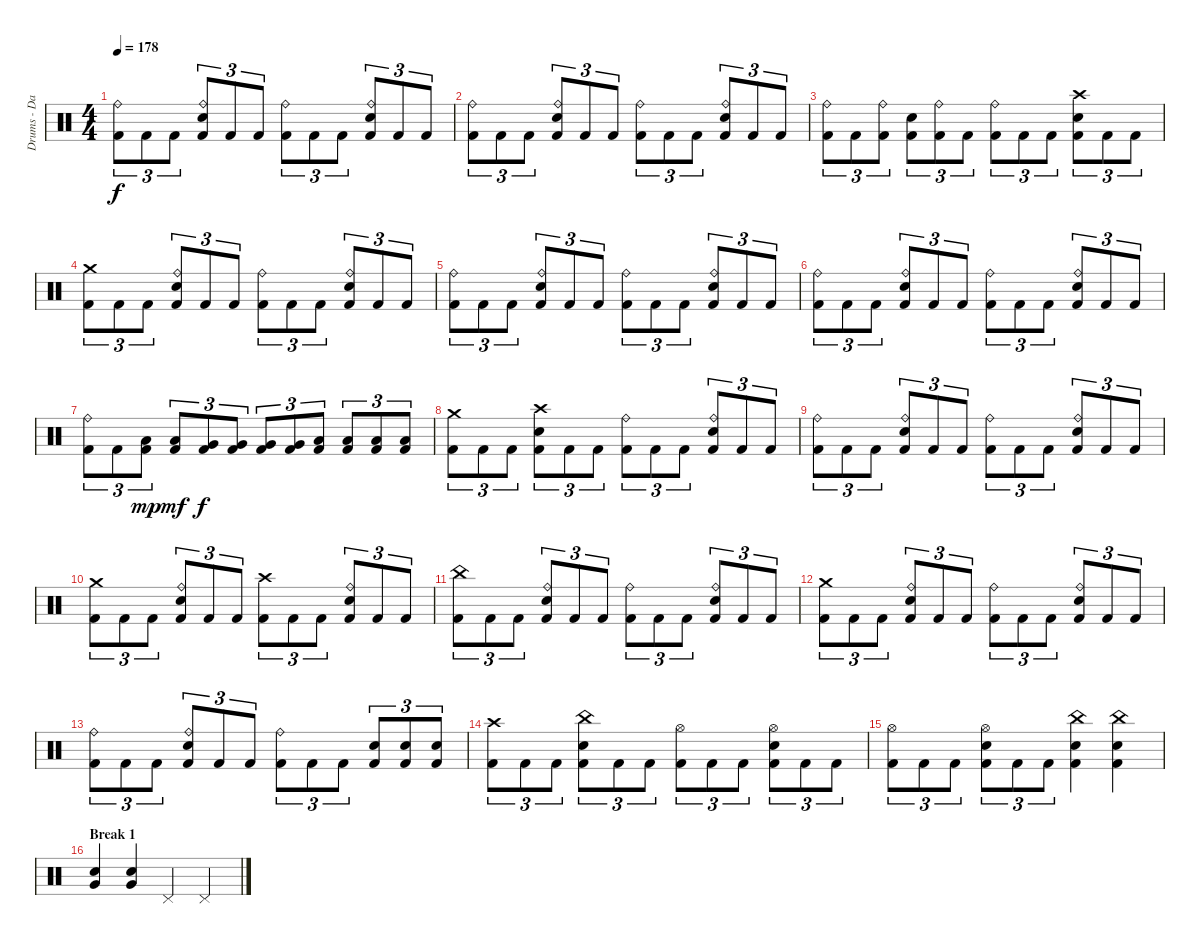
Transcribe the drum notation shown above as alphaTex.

\track ("Drums - Dan Zimmermann" "Drums - Da") {instrument percussion}
\staff {score}
\articulation defaults
\ts (4 4)
\tempo 178
\clef neutral
\ks c
("Kick (hit) 2" "Ride (bell)").8{tu (3 2) dy f} "Kick (hit) 2".8{tu (3 2)} "Kick (hit) 2".8{tu (3 2)} ("Kick (hit) 2" "Electric Snare (hit)" "Ride (bell)").8{tu (3 2)} "Kick (hit) 2".8{tu (3 2)} "Kick (hit) 2".8{tu (3 2)} ("Kick (hit) 2" "Ride (bell)").8{tu (3 2)} "Kick (hit) 2".8{tu (3 2)} "Kick (hit) 2".8{tu (3 2)} ("Kick (hit) 2" "Electric Snare (hit)" "Ride (bell)").8{tu (3 2)} "Kick (hit) 2".8{tu (3 2)} "Kick (hit) 2".8{tu (3 2)} |
("Kick (hit) 2" "Ride (bell)").8{tu (3 2)} "Kick (hit) 2".8{tu (3 2)} "Kick (hit) 2".8{tu (3 2)} ("Kick (hit) 2" "Electric Snare (hit)" "Ride (bell)").8{tu (3 2)} "Kick (hit) 2".8{tu (3 2)} "Kick (hit) 2".8{tu (3 2)} ("Kick (hit) 2" "Ride (bell)").8{tu (3 2)} "Kick (hit) 2".8{tu (3 2)} "Kick (hit) 2".8{tu (3 2)} ("Kick (hit) 2" "Electric Snare (hit)" "Ride (bell)").8{tu (3 2)} "Kick (hit) 2".8{tu (3 2)} "Kick (hit) 2".8{tu (3 2)} |
("Kick (hit) 2" "Ride (bell)").8{tu (3 2)} "Kick (hit) 2".8{tu (3 2)} ("Kick (hit) 2" "Ride (bell)").8{tu (3 2)} ("Kick (hit) 2" "Electric Snare (hit)").8{tu (3 2)} ("Kick (hit) 2" "Ride (bell)").8{tu (3 2)} "Kick (hit) 2".8{tu (3 2)} ("Kick (hit) 2" "Ride (bell)").8{tu (3 2)} "Kick (hit) 2".8{tu (3 2)} "Kick (hit) 2".8{tu (3 2)} ("Kick (hit) 2" "Electric Snare (hit)" "Crash high (hit)").8{tu (3 2)} "Kick (hit) 2".8{tu (3 2)} "Kick (hit) 2".8{tu (3 2)} |
("Kick (hit) 2" "Crash medium (hit)").8{tu (3 2)} "Kick (hit) 2".8{tu (3 2)} "Kick (hit) 2".8{tu (3 2)} ("Kick (hit) 2" "Electric Snare (hit)" "Ride (bell)").8{tu (3 2)} "Kick (hit) 2".8{tu (3 2)} "Kick (hit) 2".8{tu (3 2)} ("Kick (hit) 2" "Ride (bell)").8{tu (3 2)} "Kick (hit) 2".8{tu (3 2)} "Kick (hit) 2".8{tu (3 2)} ("Kick (hit) 2" "Electric Snare (hit)" "Ride (bell)").8{tu (3 2)} "Kick (hit) 2".8{tu (3 2)} "Kick (hit) 2".8{tu (3 2)} |
("Kick (hit) 2" "Ride (bell)").8{tu (3 2)} "Kick (hit) 2".8{tu (3 2)} "Kick (hit) 2".8{tu (3 2)} ("Kick (hit) 2" "Electric Snare (hit)" "Ride (bell)").8{tu (3 2)} "Kick (hit) 2".8{tu (3 2)} "Kick (hit) 2".8{tu (3 2)} ("Kick (hit) 2" "Ride (bell)").8{tu (3 2)} "Kick (hit) 2".8{tu (3 2)} "Kick (hit) 2".8{tu (3 2)} ("Kick (hit) 2" "Electric Snare (hit)" "Ride (bell)").8{tu (3 2)} "Kick (hit) 2".8{tu (3 2)} "Kick (hit) 2".8{tu (3 2)} |
("Kick (hit) 2" "Ride (bell)").8{tu (3 2)} "Kick (hit) 2".8{tu (3 2)} "Kick (hit) 2".8{tu (3 2)} ("Kick (hit) 2" "Electric Snare (hit)" "Ride (bell)").8{tu (3 2)} "Kick (hit) 2".8{tu (3 2)} "Kick (hit) 2".8{tu (3 2)} ("Kick (hit) 2" "Ride (bell)").8{tu (3 2)} "Kick (hit) 2".8{tu (3 2)} "Kick (hit) 2".8{tu (3 2)} ("Kick (hit) 2" "Electric Snare (hit)" "Ride (bell)").8{tu (3 2)} "Kick (hit) 2".8{tu (3 2)} "Kick (hit) 2".8{tu (3 2)} |
("Kick (hit) 2" "Ride (bell)").8{tu (3 2)} "Kick (hit) 2".8{tu (3 2)} ("Kick (hit) 2" "Low Tom (hit)").8{tu (3 2) dy mp} ("Kick (hit) 2" "Low Tom (hit)").8{tu (3 2) dy mf} ("Kick (hit) 2" "Very Low Tom (hit)").8{tu (3 2) dy f} ("Kick (hit) 2" "Very Low Tom (hit)").8{tu (3 2)} ("Kick (hit) 2" "Very Low Tom (hit)").8{tu (3 2)} ("Kick (hit) 2" "Very Low Tom (hit)").8{tu (3 2)} ("Kick (hit) 2" "Low Floor Tom (hit)").8{tu (3 2)} ("Kick (hit) 2" "Low Floor Tom (hit)").8{tu (3 2)} ("Kick (hit) 2" "Low Floor Tom (hit)").8{tu (3 2)} ("Kick (hit) 2" "Low Floor Tom (hit)").8{tu (3 2)} |
("Kick (hit) 2" "Crash medium (hit)").8{tu (3 2)} "Kick (hit) 2".8{tu (3 2)} "Kick (hit) 2".8{tu (3 2)} ("Kick (hit) 2" "Electric Snare (hit)" "Crash high (hit)").8{tu (3 2)} "Kick (hit) 2".8{tu (3 2)} "Kick (hit) 2".8{tu (3 2)} ("Kick (hit) 2" "Ride (bell)").8{tu (3 2)} "Kick (hit) 2".8{tu (3 2)} "Kick (hit) 2".8{tu (3 2)} ("Kick (hit) 2" "Electric Snare (hit)" "Ride (bell)").8{tu (3 2)} "Kick (hit) 2".8{tu (3 2)} "Kick (hit) 2".8{tu (3 2)} |
("Kick (hit) 2" "Ride (bell)").8{tu (3 2)} "Kick (hit) 2".8{tu (3 2)} "Kick (hit) 2".8{tu (3 2)} ("Kick (hit) 2" "Electric Snare (hit)" "Ride (bell)").8{tu (3 2)} "Kick (hit) 2".8{tu (3 2)} "Kick (hit) 2".8{tu (3 2)} ("Kick (hit) 2" "Ride (bell)").8{tu (3 2)} "Kick (hit) 2".8{tu (3 2)} "Kick (hit) 2".8{tu (3 2)} ("Kick (hit) 2" "Electric Snare (hit)" "Ride (bell)").8{tu (3 2)} "Kick (hit) 2".8{tu (3 2)} "Kick (hit) 2".8{tu (3 2)} |
("Kick (hit) 2" "Crash medium (hit)").8{tu (3 2)} "Kick (hit) 2".8{tu (3 2)} "Kick (hit) 2".8{tu (3 2)} ("Kick (hit) 2" "Electric Snare (hit)" "Ride (bell)").8{tu (3 2)} "Kick (hit) 2".8{tu (3 2)} "Kick (hit) 2".8{tu (3 2)} ("Kick (hit) 2" "Crash high (hit)").8{tu (3 2)} "Kick (hit) 2".8{tu (3 2)} "Kick (hit) 2".8{tu (3 2)} ("Kick (hit) 2" "Electric Snare (hit)" "Ride (bell)").8{tu (3 2)} "Kick (hit) 2".8{tu (3 2)} "Kick (hit) 2".8{tu (3 2)} |
("Kick (hit) 2" "China (hit)").8{tu (3 2)} "Kick (hit) 2".8{tu (3 2)} "Kick (hit) 2".8{tu (3 2)} ("Kick (hit) 2" "Electric Snare (hit)" "Ride (bell)").8{tu (3 2)} "Kick (hit) 2".8{tu (3 2)} "Kick (hit) 2".8{tu (3 2)} ("Kick (hit) 2" "Ride (bell)").8{tu (3 2)} "Kick (hit) 2".8{tu (3 2)} "Kick (hit) 2".8{tu (3 2)} ("Kick (hit) 2" "Electric Snare (hit)" "Ride (bell)").8{tu (3 2)} "Kick (hit) 2".8{tu (3 2)} "Kick (hit) 2".8{tu (3 2)} |
("Kick (hit) 2" "Crash medium (hit)").8{tu (3 2)} "Kick (hit) 2".8{tu (3 2)} "Kick (hit) 2".8{tu (3 2)} ("Kick (hit) 2" "Electric Snare (hit)" "Ride (bell)").8{tu (3 2)} "Kick (hit) 2".8{tu (3 2)} "Kick (hit) 2".8{tu (3 2)} ("Kick (hit) 2" "Ride (bell)").8{tu (3 2)} "Kick (hit) 2".8{tu (3 2)} "Kick (hit) 2".8{tu (3 2)} ("Kick (hit) 2" "Electric Snare (hit)" "Ride (bell)").8{tu (3 2)} "Kick (hit) 2".8{tu (3 2)} "Kick (hit) 2".8{tu (3 2)} |
("Kick (hit) 2" "Ride (bell)").8{tu (3 2)} "Kick (hit) 2".8{tu (3 2)} "Kick (hit) 2".8{tu (3 2)} ("Kick (hit) 2" "Electric Snare (hit)" "Ride (bell)").8{tu (3 2)} "Kick (hit) 2".8{tu (3 2)} "Kick (hit) 2".8{tu (3 2)} ("Kick (hit) 2" "Ride (bell)").8{tu (3 2)} "Kick (hit) 2".8{tu (3 2)} "Kick (hit) 2".8{tu (3 2)} ("Kick (hit) 2" "Electric Snare (hit)").8{tu (3 2)} ("Kick (hit) 2" "Electric Snare (hit)").8{tu (3 2)} ("Kick (hit) 2" "Electric Snare (hit)").8{tu (3 2)} |
("Kick (hit) 2" "Crash high (hit)").8{tu (3 2)} "Kick (hit) 2".8{tu (3 2)} "Kick (hit) 2".8{tu (3 2)} ("Kick (hit) 2" "Electric Snare (hit)" "China (hit)").8{tu (3 2)} "Kick (hit) 2".8{tu (3 2)} "Kick (hit) 2".8{tu (3 2)} ("Kick (hit) 2" "Hi-Hat (open)").8{tu (3 2)} "Kick (hit) 2".8{tu (3 2)} "Kick (hit) 2".8{tu (3 2)} ("Kick (hit) 2" "Electric Snare (hit)" "Hi-Hat (open)").8{tu (3 2)} "Kick (hit) 2".8{tu (3 2)} "Kick (hit) 2".8{tu (3 2)} |
("Kick (hit) 2" "Hi-Hat (open)").8{tu (3 2)} "Kick (hit) 2".8{tu (3 2)} "Kick (hit) 2".8{tu (3 2)} ("Kick (hit) 2" "Electric Snare (hit)" "Hi-Hat (open)").8{tu (3 2)} "Kick (hit) 2".8{tu (3 2)} "Kick (hit) 2".8{tu (3 2)} ("Kick (hit) 2" "Electric Snare (hit)" "China (hit)").4 ("Kick (hit) 2" "Electric Snare (hit)" "China (hit)").4 |
\section ("" "Break 1")
("Electric Snare (hit)" "Very Low Tom (hit)").4 ("Electric Snare (hit)" "Very Low Tom (hit)").4 "Pedal Hi-Hat (hit)".4 "Pedal Hi-Hat (hit)".4
